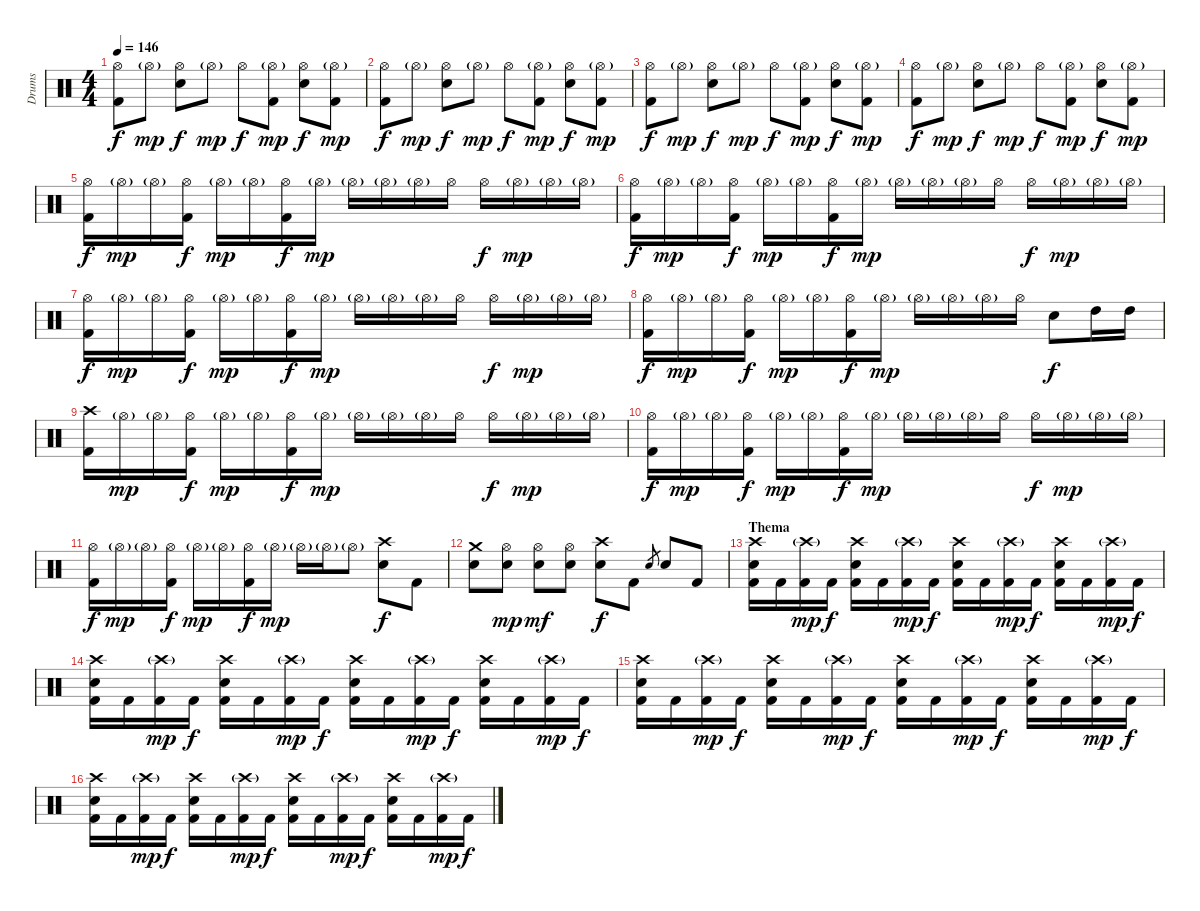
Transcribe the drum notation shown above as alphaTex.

\track ("Drums" "Drums") {instrument percussion}
\staff {score}
\articulation defaults
\ts (4 4)
\tempo 146
\clef neutral
\ks c
("Hi-Hat (open)" "Kick (hit) 2").8{dy f} "Hi-Hat (open)"{g}.8{dy mp} ("Hi-Hat (open)" "Electric Snare (hit)").8{dy f} "Hi-Hat (open)"{g}.8{dy mp} "Hi-Hat (open)".8{dy f} ("Hi-Hat (open)"{g} "Kick (hit) 2").8{dy mp} ("Hi-Hat (open)" "Electric Snare (hit)").8{dy f} ("Hi-Hat (open)"{g} "Kick (hit) 2").8{dy mp} |
("Hi-Hat (open)" "Kick (hit) 2").8{dy f} "Hi-Hat (open)"{g}.8{dy mp} ("Hi-Hat (open)" "Electric Snare (hit)").8{dy f} "Hi-Hat (open)"{g}.8{dy mp} "Hi-Hat (open)".8{dy f} ("Hi-Hat (open)"{g} "Kick (hit) 2").8{dy mp} ("Hi-Hat (open)" "Electric Snare (hit)").8{dy f} ("Hi-Hat (open)"{g} "Kick (hit) 2").8{dy mp} |
("Hi-Hat (open)" "Kick (hit) 2").8{dy f} "Hi-Hat (open)"{g}.8{dy mp} ("Hi-Hat (open)" "Electric Snare (hit)").8{dy f} "Hi-Hat (open)"{g}.8{dy mp} "Hi-Hat (open)".8{dy f} ("Hi-Hat (open)"{g} "Kick (hit) 2").8{dy mp} ("Hi-Hat (open)" "Electric Snare (hit)").8{dy f} ("Hi-Hat (open)"{g} "Kick (hit) 2").8{dy mp} |
("Hi-Hat (open)" "Kick (hit) 2").8{dy f} "Hi-Hat (open)"{g}.8{dy mp} ("Hi-Hat (open)" "Electric Snare (hit)").8{dy f} "Hi-Hat (open)"{g}.8{dy mp} "Hi-Hat (open)".8{dy f} ("Hi-Hat (open)"{g} "Kick (hit) 2").8{dy mp} ("Hi-Hat (open)" "Electric Snare (hit)").8{dy f} ("Hi-Hat (open)"{g} "Kick (hit) 2").8{dy mp} |
("Hi-Hat (open)" "Kick (hit) 2").16{dy f} "Hi-Hat (open)"{g}.16{dy mp} "Hi-Hat (open)"{g}.16 ("Hi-Hat (open)" "Kick (hit) 2").16{dy f} "Hi-Hat (open)"{g}.16{dy mp} "Hi-Hat (open)"{g}.16 ("Hi-Hat (open)" "Kick (hit) 2").16{dy f} "Hi-Hat (open)"{g}.16{dy mp} "Hi-Hat (open)"{g}.16 "Hi-Hat (open)"{g}.16 "Hi-Hat (open)"{g}.16 "Hi-Hat (open)".16 "Hi-Hat (open)".16{dy f} "Hi-Hat (open)"{g}.16{dy mp} "Hi-Hat (open)"{g}.16 "Hi-Hat (open)"{g}.16 |
("Hi-Hat (open)" "Kick (hit) 2").16{dy f} "Hi-Hat (open)"{g}.16{dy mp} "Hi-Hat (open)"{g}.16 ("Hi-Hat (open)" "Kick (hit) 2").16{dy f} "Hi-Hat (open)"{g}.16{dy mp} "Hi-Hat (open)"{g}.16 ("Hi-Hat (open)" "Kick (hit) 2").16{dy f} "Hi-Hat (open)"{g}.16{dy mp} "Hi-Hat (open)"{g}.16 "Hi-Hat (open)"{g}.16 "Hi-Hat (open)"{g}.16 "Hi-Hat (open)".16 "Hi-Hat (open)".16{dy f} "Hi-Hat (open)"{g}.16{dy mp} "Hi-Hat (open)"{g}.16 "Hi-Hat (open)"{g}.16 |
("Hi-Hat (open)" "Kick (hit) 2").16{dy f} "Hi-Hat (open)"{g}.16{dy mp} "Hi-Hat (open)"{g}.16 ("Hi-Hat (open)" "Kick (hit) 2").16{dy f} "Hi-Hat (open)"{g}.16{dy mp} "Hi-Hat (open)"{g}.16 ("Hi-Hat (open)" "Kick (hit) 2").16{dy f} "Hi-Hat (open)"{g}.16{dy mp} "Hi-Hat (open)"{g}.16 "Hi-Hat (open)"{g}.16 "Hi-Hat (open)"{g}.16 "Hi-Hat (open)".16 "Hi-Hat (open)".16{dy f} "Hi-Hat (open)"{g}.16{dy mp} "Hi-Hat (open)"{g}.16 "Hi-Hat (open)"{g}.16 |
("Hi-Hat (open)" "Kick (hit) 2").16{dy f} "Hi-Hat (open)"{g}.16{dy mp} "Hi-Hat (open)"{g}.16 ("Hi-Hat (open)" "Kick (hit) 2").16{dy f} "Hi-Hat (open)"{g}.16{dy mp} "Hi-Hat (open)"{g}.16 ("Hi-Hat (open)" "Kick (hit) 2").16{dy f} "Hi-Hat (open)"{g}.16{dy mp} "Hi-Hat (open)"{g}.16 "Hi-Hat (open)"{g}.16 "Hi-Hat (open)"{g}.16 "Hi-Hat (open)".16 "Electric Snare (hit)".8{dy f} "High Tom (hit)".16 "High Tom (hit)".16 |
("Crash high (hit)" "Kick (hit) 2").16 "Hi-Hat (open)"{g}.16{dy mp} "Hi-Hat (open)"{g}.16 ("Hi-Hat (open)" "Kick (hit) 2").16{dy f} "Hi-Hat (open)"{g}.16{dy mp} "Hi-Hat (open)"{g}.16 ("Hi-Hat (open)" "Kick (hit) 2").16{dy f} "Hi-Hat (open)"{g}.16{dy mp} "Hi-Hat (open)"{g}.16 "Hi-Hat (open)"{g}.16 "Hi-Hat (open)"{g}.16 "Hi-Hat (open)".16 "Hi-Hat (open)".16{dy f} "Hi-Hat (open)"{g}.16{dy mp} "Hi-Hat (open)"{g}.16 "Hi-Hat (open)"{g}.16 |
("Hi-Hat (open)" "Kick (hit) 2").16{dy f} "Hi-Hat (open)"{g}.16{dy mp} "Hi-Hat (open)"{g}.16 ("Hi-Hat (open)" "Kick (hit) 2").16{dy f} "Hi-Hat (open)"{g}.16{dy mp} "Hi-Hat (open)"{g}.16 ("Hi-Hat (open)" "Kick (hit) 2").16{dy f} "Hi-Hat (open)"{g}.16{dy mp} "Hi-Hat (open)"{g}.16 "Hi-Hat (open)"{g}.16 "Hi-Hat (open)"{g}.16 "Hi-Hat (open)".16 "Hi-Hat (open)".16{dy f} "Hi-Hat (open)"{g}.16{dy mp} "Hi-Hat (open)"{g}.16 "Hi-Hat (open)"{g}.16 |
("Hi-Hat (open)" "Kick (hit) 2").16{dy f} "Hi-Hat (open)"{g}.16{dy mp} "Hi-Hat (open)"{g}.16 ("Hi-Hat (open)" "Kick (hit) 2").16{dy f} "Hi-Hat (open)"{g}.16{dy mp} "Hi-Hat (open)"{g}.16 ("Hi-Hat (open)" "Kick (hit) 2").16{dy f} "Hi-Hat (open)"{g}.16{dy mp} "Hi-Hat (open)"{g}.16 "Hi-Hat (open)"{g}.16 "Hi-Hat (open)"{g}.8 ("Crash high (hit)" "Electric Snare (hit)").8{dy f} "Kick (hit) 2".8 |
("Crash medium (hit)" "Electric Snare (hit)").8 ("Hi-Hat (open)" "Electric Snare (hit)").8{dy mp} ("Hi-Hat (open)" "Electric Snare (hit)").8{dy mf} ("Hi-Hat (open)" "Electric Snare (hit)").8 ("Crash high (hit)" "Electric Snare (hit)").8{dy f} "Kick (hit) 2".8 "Electric Snare (hit)".8{gr} "Electric Snare (hit)".8 "Kick (hit) 2".8 |
\section ("" "Thema")
("Crash high (hit)" "Electric Snare (hit)" "Kick (hit) 2").16 "Kick (hit) 2".16 ("Crash high (hit)"{g} "Kick (hit) 2").16{dy mp} "Kick (hit) 2".16{dy f} ("Crash high (hit)" "Electric Snare (hit)" "Kick (hit) 2").16 "Kick (hit) 2".16 ("Crash high (hit)"{g} "Kick (hit) 2").16{dy mp} "Kick (hit) 2".16{dy f} ("Crash high (hit)" "Electric Snare (hit)" "Kick (hit) 2").16 "Kick (hit) 2".16 ("Crash high (hit)"{g} "Kick (hit) 2").16{dy mp} "Kick (hit) 2".16{dy f} ("Crash high (hit)" "Electric Snare (hit)" "Kick (hit) 2").16 "Kick (hit) 2".16 ("Crash high (hit)"{g} "Kick (hit) 2").16{dy mp} "Kick (hit) 2".16{dy f} |
("Crash high (hit)" "Electric Snare (hit)" "Kick (hit) 2").16 "Kick (hit) 2".16 ("Crash high (hit)"{g} "Kick (hit) 2").16{dy mp} "Kick (hit) 2".16{dy f} ("Crash high (hit)" "Electric Snare (hit)" "Kick (hit) 2").16 "Kick (hit) 2".16 ("Crash high (hit)"{g} "Kick (hit) 2").16{dy mp} "Kick (hit) 2".16{dy f} ("Crash high (hit)" "Electric Snare (hit)" "Kick (hit) 2").16 "Kick (hit) 2".16 ("Crash high (hit)"{g} "Kick (hit) 2").16{dy mp} "Kick (hit) 2".16{dy f} ("Crash high (hit)" "Electric Snare (hit)" "Kick (hit) 2").16 "Kick (hit) 2".16 ("Crash high (hit)"{g} "Kick (hit) 2").16{dy mp} "Kick (hit) 2".16{dy f} |
("Crash high (hit)" "Electric Snare (hit)" "Kick (hit) 2").16 "Kick (hit) 2".16 ("Crash high (hit)"{g} "Kick (hit) 2").16{dy mp} "Kick (hit) 2".16{dy f} ("Crash high (hit)" "Electric Snare (hit)" "Kick (hit) 2").16 "Kick (hit) 2".16 ("Crash high (hit)"{g} "Kick (hit) 2").16{dy mp} "Kick (hit) 2".16{dy f} ("Crash high (hit)" "Electric Snare (hit)" "Kick (hit) 2").16 "Kick (hit) 2".16 ("Crash high (hit)"{g} "Kick (hit) 2").16{dy mp} "Kick (hit) 2".16{dy f} ("Crash high (hit)" "Electric Snare (hit)" "Kick (hit) 2").16 "Kick (hit) 2".16 ("Crash high (hit)"{g} "Kick (hit) 2").16{dy mp} "Kick (hit) 2".16{dy f} |
("Crash high (hit)" "Electric Snare (hit)" "Kick (hit) 2").16 "Kick (hit) 2".16 ("Crash high (hit)"{g} "Kick (hit) 2").16{dy mp} "Kick (hit) 2".16{dy f} ("Crash high (hit)" "Electric Snare (hit)" "Kick (hit) 2").16 "Kick (hit) 2".16 ("Crash high (hit)"{g} "Kick (hit) 2").16{dy mp} "Kick (hit) 2".16{dy f} ("Crash high (hit)" "Electric Snare (hit)" "Kick (hit) 2").16 "Kick (hit) 2".16 ("Crash high (hit)"{g} "Kick (hit) 2").16{dy mp} "Kick (hit) 2".16{dy f} ("Crash high (hit)" "Electric Snare (hit)" "Kick (hit) 2").16 "Kick (hit) 2".16 ("Crash high (hit)"{g} "Kick (hit) 2").16{dy mp} "Kick (hit) 2".16{dy f}
